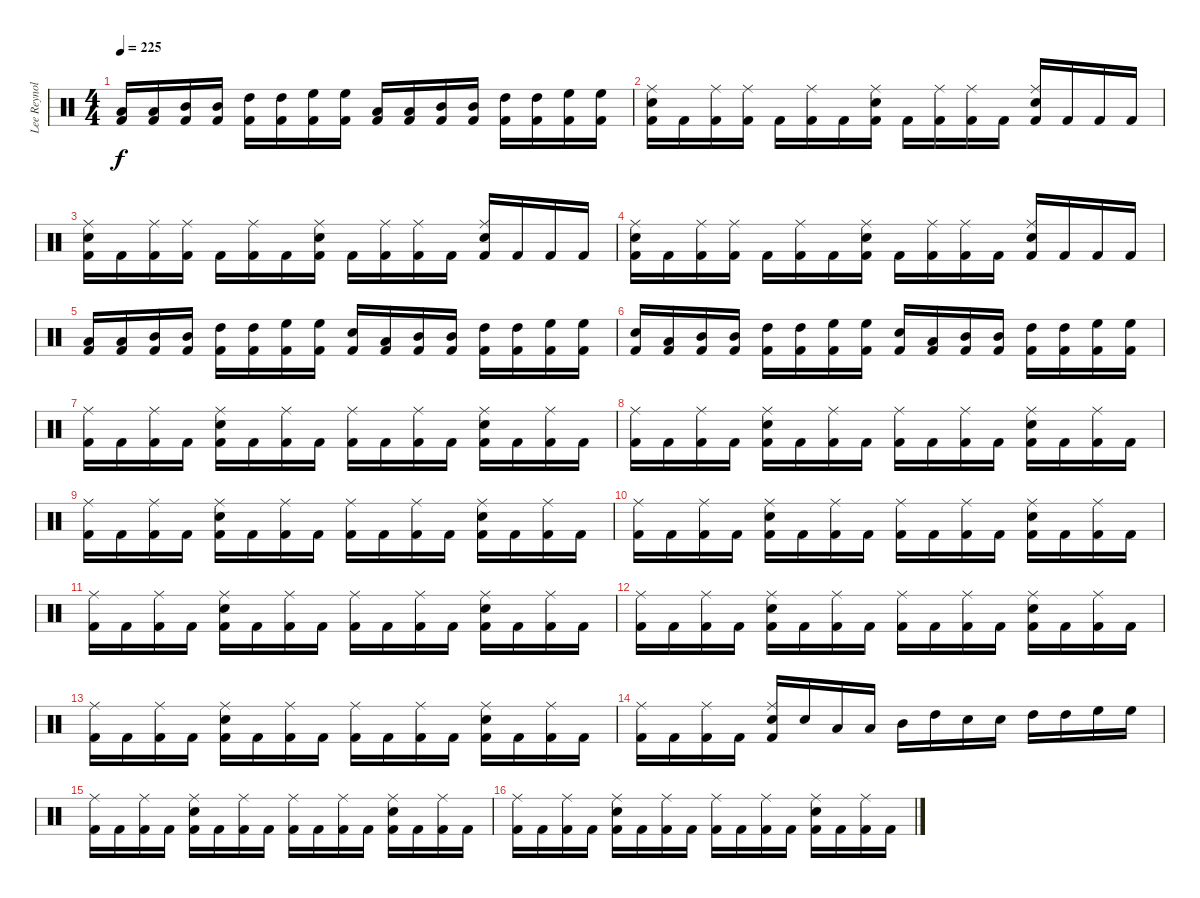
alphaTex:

\track ("Lee Reynolds" "Lee Reynol") {instrument percussion}
\staff {score}
\articulation defaults
\ts (4 4)
\tempo 225
\clef neutral
\ks c
("Low Tom (hit)" "Kick (hit) 2").16{dy f} ("Low Tom (hit)" "Kick (hit) 2").16 ("Mid Tom (hit)" "Kick (hit) 2").16 ("Mid Tom (hit)" "Kick (hit) 2").16 ("High Tom (hit)" "Kick (hit) 2").16 ("High Tom (hit)" "Kick (hit) 2").16 ("High Floor Tom (hit)" "Kick (hit) 2").16 ("High Floor Tom (hit)" "Kick (hit) 2").16 ("Low Tom (hit)" "Kick (hit) 2").16 ("Low Tom (hit)" "Kick (hit) 2").16 ("Mid Tom (hit)" "Kick (hit) 2").16 ("Mid Tom (hit)" "Kick (hit) 2").16 ("High Tom (hit)" "Kick (hit) 2").16 ("High Tom (hit)" "Kick (hit) 2").16 ("High Floor Tom (hit)" "Kick (hit) 2").16 ("High Floor Tom (hit)" "Kick (hit) 2").16 |
("Ride (middle)" "Snare (hit) 2" "Kick (hit) 2").16 "Kick (hit) 2".16 ("Ride (middle)" "Kick (hit) 2").16 ("Ride (middle)" "Kick (hit) 2").16 "Kick (hit) 2".16 ("Ride (middle)" "Kick (hit) 2").16 "Kick (hit) 2".16 ("Ride (middle)" "Snare (hit) 2" "Kick (hit) 2").16 "Kick (hit) 2".16 ("Ride (middle)" "Kick (hit) 2").16 ("Ride (middle)" "Kick (hit) 2").16 "Kick (hit) 2".16 ("Ride (middle)" "Snare (hit) 2" "Kick (hit) 2").16 "Kick (hit) 2".16 "Kick (hit) 2".16 "Kick (hit) 2".16 |
("Ride (middle)" "Snare (hit) 2" "Kick (hit) 2").16 "Kick (hit) 2".16 ("Ride (middle)" "Kick (hit) 2").16 ("Ride (middle)" "Kick (hit) 2").16 "Kick (hit) 2".16 ("Ride (middle)" "Kick (hit) 2").16 "Kick (hit) 2".16 ("Ride (middle)" "Snare (hit) 2" "Kick (hit) 2").16 "Kick (hit) 2".16 ("Ride (middle)" "Kick (hit) 2").16 ("Ride (middle)" "Kick (hit) 2").16 "Kick (hit) 2".16 ("Ride (middle)" "Snare (hit) 2" "Kick (hit) 2").16 "Kick (hit) 2".16 "Kick (hit) 2".16 "Kick (hit) 2".16 |
("Ride (middle)" "Snare (hit) 2" "Kick (hit) 2").16 "Kick (hit) 2".16 ("Ride (middle)" "Kick (hit) 2").16 ("Ride (middle)" "Kick (hit) 2").16 "Kick (hit) 2".16 ("Ride (middle)" "Kick (hit) 2").16 "Kick (hit) 2".16 ("Ride (middle)" "Snare (hit) 2" "Kick (hit) 2").16 "Kick (hit) 2".16 ("Ride (middle)" "Kick (hit) 2").16 ("Ride (middle)" "Kick (hit) 2").16 "Kick (hit) 2".16 ("Ride (middle)" "Snare (hit) 2" "Kick (hit) 2").16 "Kick (hit) 2".16 "Kick (hit) 2".16 "Kick (hit) 2".16 |
("Low Tom (hit)" "Kick (hit) 2").16 ("Low Tom (hit)" "Kick (hit) 2").16 ("Mid Tom (hit)" "Kick (hit) 2").16 ("Mid Tom (hit)" "Kick (hit) 2").16 ("High Tom (hit)" "Kick (hit) 2").16 ("High Tom (hit)" "Kick (hit) 2").16 ("High Floor Tom (hit)" "Kick (hit) 2").16 ("High Floor Tom (hit)" "Kick (hit) 2").16 ("Snare (hit) 2" "Kick (hit) 2").16 ("Low Tom (hit)" "Kick (hit) 2").16 ("Mid Tom (hit)" "Kick (hit) 2").16 ("Mid Tom (hit)" "Kick (hit) 2").16 ("High Tom (hit)" "Kick (hit) 2").16 ("High Tom (hit)" "Kick (hit) 2").16 ("High Floor Tom (hit)" "Kick (hit) 2").16 ("High Floor Tom (hit)" "Kick (hit) 2").16 |
("Snare (hit) 2" "Kick (hit) 2").16 ("Low Tom (hit)" "Kick (hit) 2").16 ("Mid Tom (hit)" "Kick (hit) 2").16 ("Mid Tom (hit)" "Kick (hit) 2").16 ("High Tom (hit)" "Kick (hit) 2").16 ("High Tom (hit)" "Kick (hit) 2").16 ("High Floor Tom (hit)" "Kick (hit) 2").16 ("High Floor Tom (hit)" "Kick (hit) 2").16 ("Snare (hit) 2" "Kick (hit) 2").16 ("Low Tom (hit)" "Kick (hit) 2").16 ("Mid Tom (hit)" "Kick (hit) 2").16 ("Mid Tom (hit)" "Kick (hit) 2").16 ("High Tom (hit)" "Kick (hit) 2").16 ("High Tom (hit)" "Kick (hit) 2").16 ("High Floor Tom (hit)" "Kick (hit) 2").16 ("High Floor Tom (hit)" "Kick (hit) 2").16 |
("Ride (middle)" "Kick (hit) 2").16 "Kick (hit) 2".16 ("Ride (middle)" "Kick (hit) 2").16 "Kick (hit) 2".16 ("Ride (middle)" "Snare (hit) 2" "Kick (hit) 2").16 "Kick (hit) 2".16 ("Ride (middle)" "Kick (hit) 2").16 "Kick (hit) 2".16 ("Ride (middle)" "Kick (hit) 2").16 "Kick (hit) 2".16 ("Ride (middle)" "Kick (hit) 2").16 "Kick (hit) 2".16 ("Ride (middle)" "Snare (hit) 2" "Kick (hit) 2").16 "Kick (hit) 2".16 ("Ride (middle)" "Kick (hit) 2").16 "Kick (hit) 2".16 |
("Ride (middle)" "Kick (hit) 2").16 "Kick (hit) 2".16 ("Ride (middle)" "Kick (hit) 2").16 "Kick (hit) 2".16 ("Ride (middle)" "Snare (hit) 2" "Kick (hit) 2").16 "Kick (hit) 2".16 ("Ride (middle)" "Kick (hit) 2").16 "Kick (hit) 2".16 ("Ride (middle)" "Kick (hit) 2").16 "Kick (hit) 2".16 ("Ride (middle)" "Kick (hit) 2").16 "Kick (hit) 2".16 ("Ride (middle)" "Snare (hit) 2" "Kick (hit) 2").16 "Kick (hit) 2".16 ("Ride (middle)" "Kick (hit) 2").16 "Kick (hit) 2".16 |
("Ride (middle)" "Kick (hit) 2").16 "Kick (hit) 2".16 ("Ride (middle)" "Kick (hit) 2").16 "Kick (hit) 2".16 ("Ride (middle)" "Snare (hit) 2" "Kick (hit) 2").16 "Kick (hit) 2".16 ("Ride (middle)" "Kick (hit) 2").16 "Kick (hit) 2".16 ("Ride (middle)" "Kick (hit) 2").16 "Kick (hit) 2".16 ("Ride (middle)" "Kick (hit) 2").16 "Kick (hit) 2".16 ("Ride (middle)" "Snare (hit) 2" "Kick (hit) 2").16 "Kick (hit) 2".16 ("Ride (middle)" "Kick (hit) 2").16 "Kick (hit) 2".16 |
("Ride (middle)" "Kick (hit) 2").16 "Kick (hit) 2".16 ("Ride (middle)" "Kick (hit) 2").16 "Kick (hit) 2".16 ("Ride (middle)" "Snare (hit) 2" "Kick (hit) 2").16 "Kick (hit) 2".16 ("Ride (middle)" "Kick (hit) 2").16 "Kick (hit) 2".16 ("Ride (middle)" "Kick (hit) 2").16 "Kick (hit) 2".16 ("Ride (middle)" "Kick (hit) 2").16 "Kick (hit) 2".16 ("Ride (middle)" "Snare (hit) 2" "Kick (hit) 2").16 "Kick (hit) 2".16 ("Ride (middle)" "Kick (hit) 2").16 "Kick (hit) 2".16 |
("Ride (middle)" "Kick (hit) 2").16 "Kick (hit) 2".16 ("Ride (middle)" "Kick (hit) 2").16 "Kick (hit) 2".16 ("Ride (middle)" "Snare (hit) 2" "Kick (hit) 2").16 "Kick (hit) 2".16 ("Ride (middle)" "Kick (hit) 2").16 "Kick (hit) 2".16 ("Ride (middle)" "Kick (hit) 2").16 "Kick (hit) 2".16 ("Ride (middle)" "Kick (hit) 2").16 "Kick (hit) 2".16 ("Ride (middle)" "Snare (hit) 2" "Kick (hit) 2").16 "Kick (hit) 2".16 ("Ride (middle)" "Kick (hit) 2").16 "Kick (hit) 2".16 |
("Ride (middle)" "Kick (hit) 2").16 "Kick (hit) 2".16 ("Ride (middle)" "Kick (hit) 2").16 "Kick (hit) 2".16 ("Ride (middle)" "Snare (hit) 2" "Kick (hit) 2").16 "Kick (hit) 2".16 ("Ride (middle)" "Kick (hit) 2").16 "Kick (hit) 2".16 ("Ride (middle)" "Kick (hit) 2").16 "Kick (hit) 2".16 ("Ride (middle)" "Kick (hit) 2").16 "Kick (hit) 2".16 ("Ride (middle)" "Snare (hit) 2" "Kick (hit) 2").16 "Kick (hit) 2".16 ("Ride (middle)" "Kick (hit) 2").16 "Kick (hit) 2".16 |
("Ride (middle)" "Kick (hit) 2").16 "Kick (hit) 2".16 ("Ride (middle)" "Kick (hit) 2").16 "Kick (hit) 2".16 ("Ride (middle)" "Snare (hit) 2" "Kick (hit) 2").16 "Kick (hit) 2".16 ("Ride (middle)" "Kick (hit) 2").16 "Kick (hit) 2".16 ("Ride (middle)" "Kick (hit) 2").16 "Kick (hit) 2".16 ("Ride (middle)" "Kick (hit) 2").16 "Kick (hit) 2".16 ("Ride (middle)" "Snare (hit) 2" "Kick (hit) 2").16 "Kick (hit) 2".16 ("Ride (middle)" "Kick (hit) 2").16 "Kick (hit) 2".16 |
("Ride (middle)" "Kick (hit) 2").16 "Kick (hit) 2".16 ("Ride (middle)" "Kick (hit) 2").16 "Kick (hit) 2".16 ("Ride (middle)" "Snare (hit) 2" "Kick (hit) 2").16 "Snare (hit) 2".16 "Low Tom (hit)".16 "Low Tom (hit)".16 "Mid Tom (hit)".16 "High Tom (hit)".16 "Snare (hit) 2".16 "Snare (hit) 2".16 "High Tom (hit)".16 "High Tom (hit)".16 "High Floor Tom (hit)".16 "High Floor Tom (hit)".16 |
("Ride (middle)" "Kick (hit) 2").16 "Kick (hit) 2".16 ("Ride (middle)" "Kick (hit) 2").16 "Kick (hit) 2".16 ("Ride (middle)" "Snare (hit) 2" "Kick (hit) 2").16 "Kick (hit) 2".16 ("Ride (middle)" "Kick (hit) 2").16 "Kick (hit) 2".16 ("Ride (middle)" "Kick (hit) 2").16 "Kick (hit) 2".16 ("Ride (middle)" "Kick (hit) 2").16 "Kick (hit) 2".16 ("Ride (middle)" "Snare (hit) 2" "Kick (hit) 2").16 "Kick (hit) 2".16 ("Ride (middle)" "Kick (hit) 2").16 "Kick (hit) 2".16 |
("Ride (middle)" "Kick (hit) 2").16 "Kick (hit) 2".16 ("Ride (middle)" "Kick (hit) 2").16 "Kick (hit) 2".16 ("Ride (middle)" "Snare (hit) 2" "Kick (hit) 2").16 "Kick (hit) 2".16 ("Ride (middle)" "Kick (hit) 2").16 "Kick (hit) 2".16 ("Ride (middle)" "Kick (hit) 2").16 "Kick (hit) 2".16 ("Ride (middle)" "Kick (hit) 2").16 "Kick (hit) 2".16 ("Ride (middle)" "Snare (hit) 2" "Kick (hit) 2").16 "Kick (hit) 2".16 ("Ride (middle)" "Kick (hit) 2").16 "Kick (hit) 2".16
